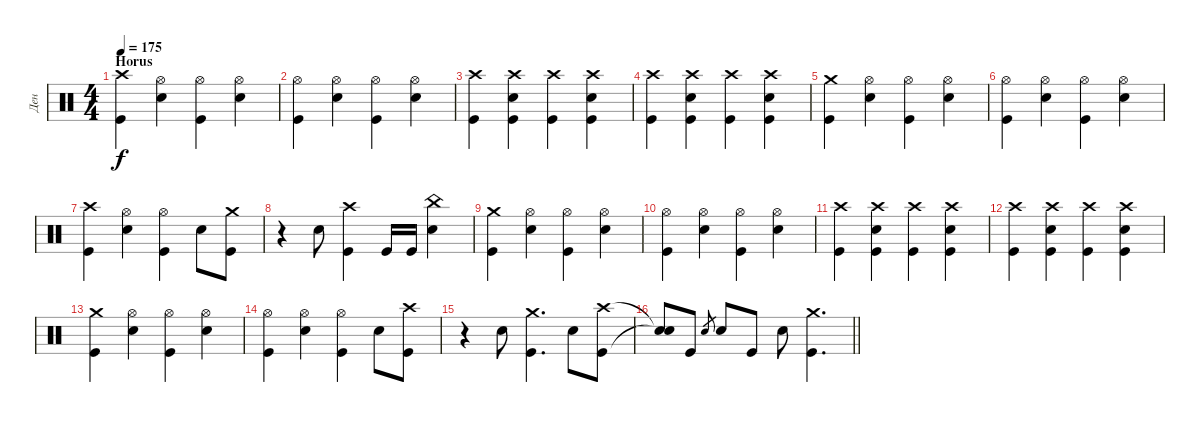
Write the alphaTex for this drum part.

\track ("Ден" "Ден") {instrument percussion}
\staff {score}
\articulation defaults
\ts (4 4)
\section ("" "Horus")
\tempo 175
\clef neutral
\ks c
("Crash high (hit)" "Kick (hit)").4{dy f} ("Hi-Hat (open)" "Snare (hit) 2").4 ("Hi-Hat (open)" "Kick (hit)").4 ("Hi-Hat (open)" "Snare (hit) 2").4 |
("Hi-Hat (open)" "Kick (hit)").4 ("Hi-Hat (open)" "Snare (hit) 2").4 ("Hi-Hat (open)" "Kick (hit)").4 ("Hi-Hat (open)" "Snare (hit) 2").4 |
("Crash high (hit)" "Kick (hit)").4 ("Crash high (hit)" "Snare (hit) 2" "Kick (hit)").4 ("Crash high (hit)" "Kick (hit)").4 ("Crash high (hit)" "Snare (hit) 2" "Kick (hit)").4 |
("Crash high (hit)" "Kick (hit)").4 ("Crash high (hit)" "Snare (hit) 2" "Kick (hit)").4 ("Crash high (hit)" "Kick (hit)").4 ("Crash high (hit)" "Snare (hit) 2" "Kick (hit)").4 |
("Crash medium (hit)" "Kick (hit)").4 ("Hi-Hat (open)" "Snare (hit) 2").4 ("Hi-Hat (open)" "Kick (hit)").4 ("Hi-Hat (open)" "Snare (hit) 2").4 |
("Hi-Hat (open)" "Kick (hit)").4 ("Hi-Hat (open)" "Snare (hit) 2").4 ("Hi-Hat (open)" "Kick (hit)").4 ("Hi-Hat (open)" "Snare (hit) 2").4 |
("Crash high (hit)" "Kick (hit)").4 ("Hi-Hat (open)" "Snare (hit) 2").4 ("Hi-Hat (open)" "Kick (hit)").4 "Snare (hit) 2".8 ("Crash medium (hit)" "Kick (hit)").8 |
r.4 "Snare (hit) 2".8 ("Crash high (hit)" "Kick (hit)").4 "Kick (hit)".16 "Kick (hit)".16 ("China (hit)" "Snare (hit) 2").4 |
("Crash medium (hit)" "Kick (hit)").4 ("Hi-Hat (open)" "Snare (hit) 2").4 ("Hi-Hat (open)" "Kick (hit)").4 ("Hi-Hat (open)" "Snare (hit) 2").4 |
("Hi-Hat (open)" "Kick (hit)").4 ("Hi-Hat (open)" "Snare (hit) 2").4 ("Hi-Hat (open)" "Kick (hit)").4 ("Hi-Hat (open)" "Snare (hit) 2").4 |
("Crash high (hit)" "Kick (hit)").4 ("Crash high (hit)" "Snare (hit) 2" "Kick (hit)").4 ("Crash high (hit)" "Kick (hit)").4 ("Crash high (hit)" "Snare (hit) 2" "Kick (hit)").4 |
("Crash high (hit)" "Kick (hit)").4 ("Crash high (hit)" "Snare (hit) 2" "Kick (hit)").4 ("Crash high (hit)" "Kick (hit)").4 ("Crash high (hit)" "Snare (hit) 2" "Kick (hit)").4 |
("Crash medium (hit)" "Kick (hit)").4 ("Hi-Hat (open)" "Snare (hit) 2").4 ("Hi-Hat (open)" "Kick (hit)").4 ("Hi-Hat (open)" "Snare (hit) 2").4 |
("Hi-Hat (open)" "Kick (hit)").4 ("Hi-Hat (open)" "Snare (hit) 2").4 ("Hi-Hat (open)" "Kick (hit)").4 "Snare (hit) 2".8 ("Crash high (hit)" "Kick (hit)").8 |
r.4 "Snare (hit) 2".8 ("Crash medium (hit)" "Kick (hit)").4{d} "Snare (hit) 2".8 ("Crash high (hit)" "Kick (hit)").8 |
\barLineRight lightlight
("Snare (hit)"{t} "Snare (hit)"{t}).8 "Kick (hit)".8 "Snare (hit) 2".8{gr} "Snare (hit) 2".8 "Kick (hit)".8 "Snare (hit) 2".8 ("Crash medium (hit)" "Kick (hit)").4{d}
